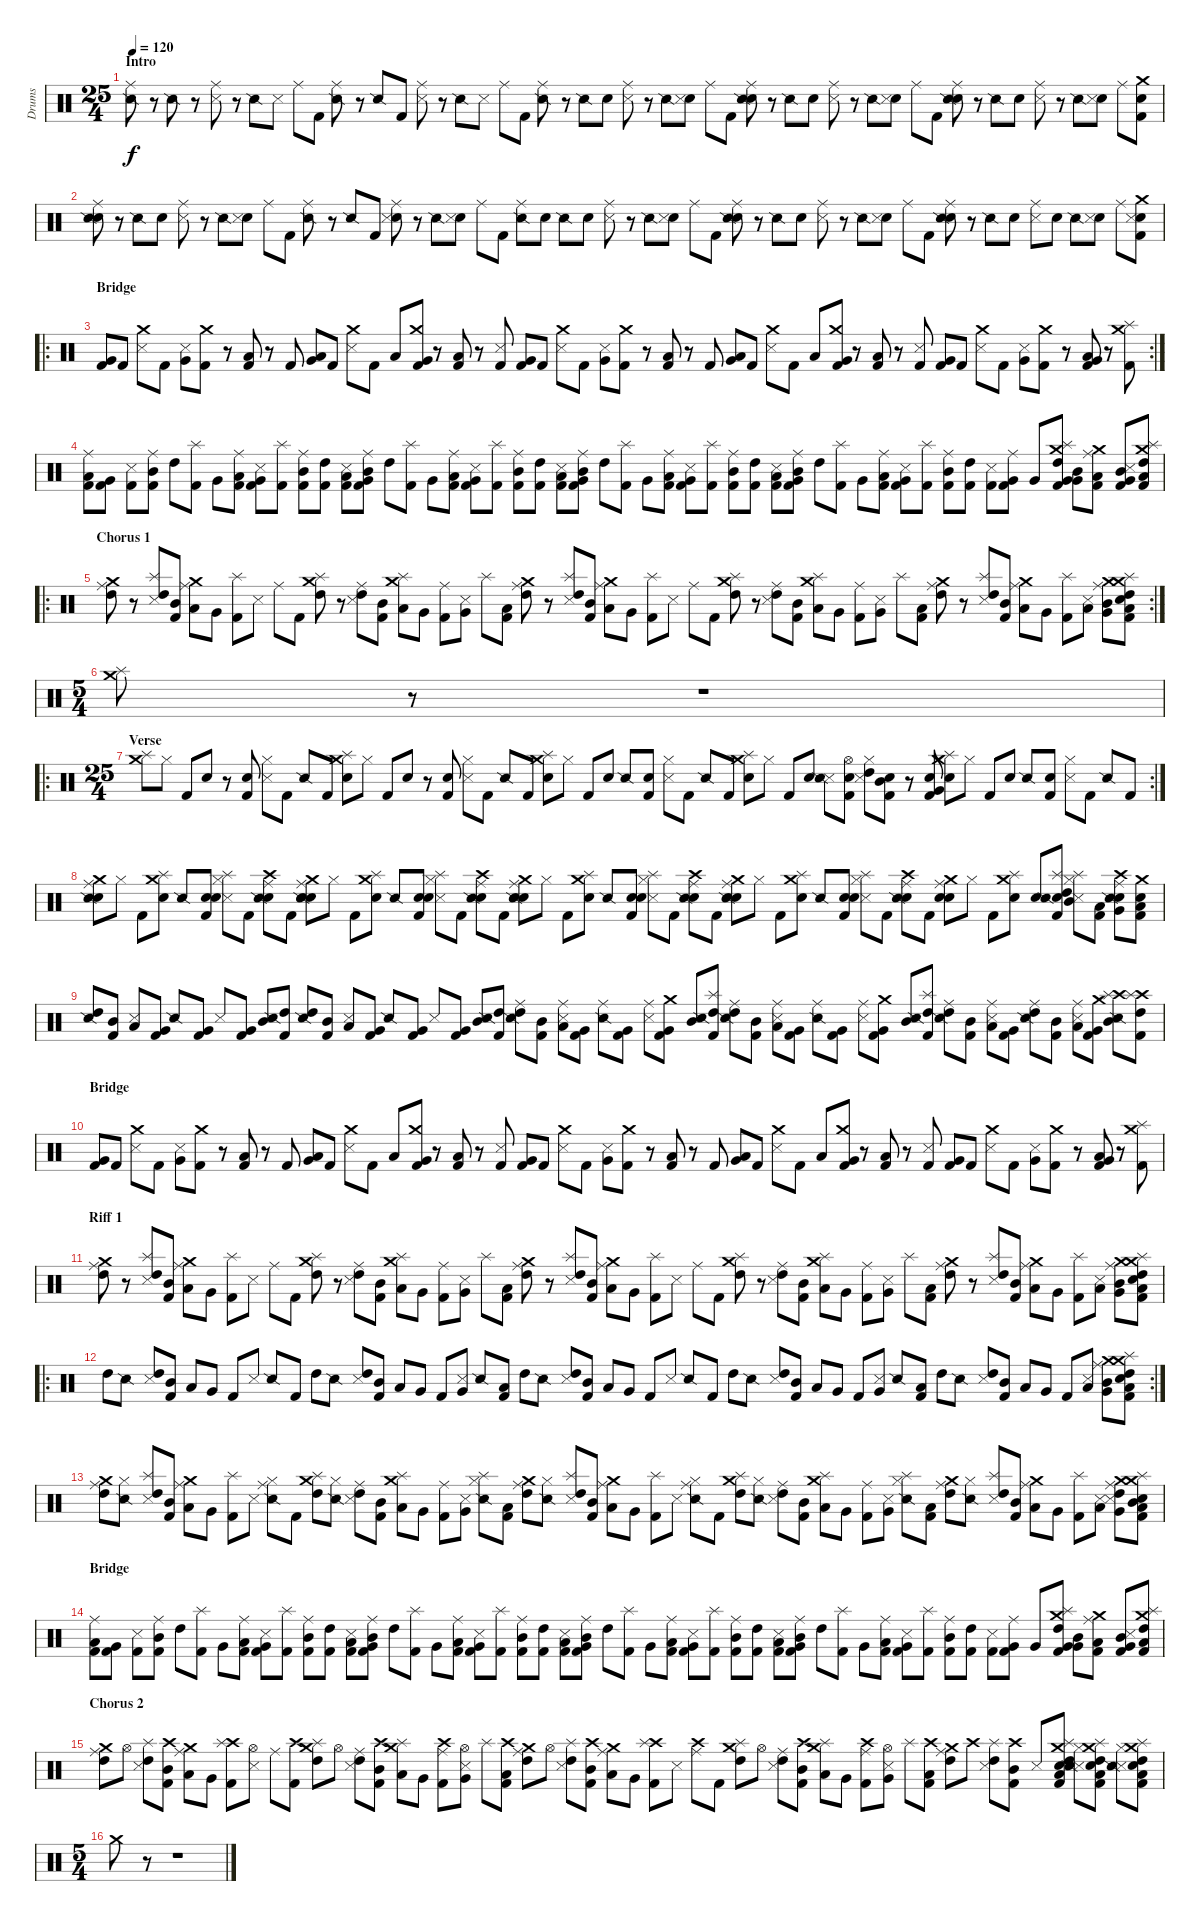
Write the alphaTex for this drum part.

\track ("Drums" "Drums") {instrument percussion}
\staff {score}
\articulation defaults
\ts (25 4)
\section ("" "Intro")
\tempo 120
\clef neutral
\ks c
("Ride (middle)" "Snare (side stick) 2").8{dy f} r.8 "Snare (side stick) 2".8 r.8 ("Ride (middle)" "Snare (side stick) 3").8 r.8 "Snare (side stick) 2".8 "Snare (side stick) 3".8 "Ride (middle)".8 "Kick (hit) 2".8 ("Ride (middle)" "Snare (side stick) 2").8 r.8 "Snare (side stick) 2".8 "Kick (hit) 2".8 ("Ride (middle)" "Snare (side stick) 3").8 r.8 "Snare (side stick) 2".8 "Snare (side stick) 3".8 "Ride (middle)".8 "Kick (hit) 2".8 ("Ride (middle)" "Snare (side stick) 2").8 r.8 "Snare (side stick) 2".8 "Electric Snare (hit)".8 ("Ride (middle)" "Snare (side stick) 3").8 r.8 "Snare (side stick) 2".8 ("Electric Snare (hit)" "Snare (side stick) 3").8 "Ride (middle)".8 "Kick (hit) 2".8 ("Ride (middle)" "Electric Snare (hit)" "Snare (side stick) 2").8 r.8 "Snare (side stick) 2".8 "Electric Snare (hit)".8 ("Ride (middle)" "Snare (side stick) 3").8 r.8 "Snare (side stick) 2".8 ("Electric Snare (hit)" "Snare (side stick) 3").8 "Ride (middle)".8 "Kick (hit) 2".8 ("Ride (middle)" "Electric Snare (hit)" "Snare (side stick) 2").8 r.8 "Snare (side stick) 2".8 "Electric Snare (hit)".8 ("Ride (middle)" "Snare (side stick) 3").8 r.8 "Snare (side stick) 2".8 ("Electric Snare (hit)" "Snare (side stick) 3").8 "Ride (middle)".8 ("Crash medium (hit)" "Electric Snare (hit)" "Kick (hit) 2").8 |
("Ride (middle)" "Electric Snare (hit)" "Snare (side stick) 2").8 r.8 "Snare (side stick) 2".8 "Electric Snare (hit)".8 ("Ride (middle)" "Snare (side stick) 3").8 r.8 "Snare (side stick) 2".8 ("Electric Snare (hit)" "Snare (side stick) 3").8 "Ride (middle)".8 "Kick (hit) 2".8 ("Ride (middle)" "Snare (side stick) 2").8 r.8 "Snare (side stick) 2".8 "Kick (hit) 2".8 ("Ride (middle)" "Electric Snare (hit)" "Snare (side stick) 3").8 r.8 "Snare (side stick) 2".8 ("Electric Snare (hit)" "Snare (side stick) 3").8 "Ride (middle)".8 "Kick (hit) 2".8 ("Ride (middle)" "Snare (side stick) 2").8 "Electric Snare (hit)".8 "Snare (side stick) 2".8 "Electric Snare (hit)".8 ("Ride (middle)" "Snare (side stick) 3").8 r.8 "Snare (side stick) 2".8 ("Electric Snare (hit)" "Snare (side stick) 3").8 "Ride (middle)".8 "Kick (hit) 2".8 ("Ride (middle)" "Electric Snare (hit)" "Snare (side stick) 2").8 r.8 "Snare (side stick) 2".8 "Electric Snare (hit)".8 ("Ride (middle)" "Snare (side stick) 3").8 r.8 "Snare (side stick) 2".8 ("Electric Snare (hit)" "Snare (side stick) 3").8 "Ride (middle)".8 "Kick (hit) 2".8 ("Ride (middle)" "Electric Snare (hit)" "Snare (side stick) 2").8 r.8 "Snare (side stick) 2".8 "Electric Snare (hit)".8 ("Ride (middle)" "Snare (side stick) 3").8 "Electric Snare (hit)".8 "Snare (side stick) 2".8 ("Electric Snare (hit)" "Snare (side stick) 3").8 "Ride (middle)".8 ("Crash medium (hit)" "Electric Snare (hit)" "Snare (side stick) 3" "Kick (hit) 2").8 |
\ro
\rc 2
\section ("" "Bridge")
("Very Low Tom (hit)" "Kick (hit) 2").8 "Kick (hit) 2".8 ("Crash medium (hit)" "Snare (side stick) 3").8 "Kick (hit) 2".8 ("Very Low Tom (hit)" "Snare (side stick) 3").8 ("Crash medium (hit)" "Kick (hit) 2").8 r.8 ("Low Tom (hit)" "Kick (hit) 2").8 r.8 "Kick (hit) 2".8 ("Low Tom (hit)" "Very Low Tom (hit)").8 "Kick (hit) 2".8 ("Crash medium (hit)" "Snare (side stick) 3").8 "Kick (hit) 2".8 "Low Tom (hit)".8 ("Crash medium (hit)" "Very Low Tom (hit)" "Kick (hit) 2").8 r.8 ("Low Tom (hit)" "Kick (hit) 2").8 r.8 ("Snare (side stick) 3" "Kick (hit) 2").8 ("Very Low Tom (hit)" "Kick (hit) 2").8 "Kick (hit) 2".8 ("Crash medium (hit)" "Snare (side stick) 3").8 "Kick (hit) 2".8 ("Very Low Tom (hit)" "Snare (side stick) 3").8 ("Crash medium (hit)" "Kick (hit) 2").8 r.8 ("Low Tom (hit)" "Kick (hit) 2").8 r.8 "Kick (hit) 2".8 ("Low Tom (hit)" "Very Low Tom (hit)").8 "Kick (hit) 2".8 ("Crash medium (hit)" "Snare (side stick) 3").8 "Kick (hit) 2".8 "Low Tom (hit)".8 ("Crash medium (hit)" "Very Low Tom (hit)" "Kick (hit) 2").8 r.8 ("Low Tom (hit)" "Kick (hit) 2").8 r.8 ("Snare (side stick) 3" "Kick (hit) 2").8 ("Very Low Tom (hit)" "Kick (hit) 2").8 "Kick (hit) 2".8 ("Crash medium (hit)" "Snare (side stick) 3").8 "Kick (hit) 2".8 ("Very Low Tom (hit)" "Snare (side stick) 3").8 ("Crash medium (hit)" "Kick (hit) 2").8 r.8 ("Low Tom (hit)" "Very Low Tom (hit)" "Kick (hit) 2").8 r.8 ("Crash medium (hit)" "Splash (hit)" "Kick (hit) 2").8 |
("Ride (middle)" "Low Tom (hit)" "Kick (hit) 2").8 ("Very Low Tom (hit)" "Kick (hit) 2").8 ("Snare (side stick) 3" "Kick (hit) 2").8 ("Ride (middle)" "Mid Tom (hit)" "Kick (hit) 2").8 "High Tom (hit)".8 ("Splash (hit)" "Kick (hit) 2").8 "Very Low Tom (hit)".8 ("Ride (middle)" "Low Tom (hit)" "Kick (hit) 2").8 ("Very Low Tom (hit)" "Snare (side stick) 3" "Kick (hit) 2").8 ("Splash (hit)" "Kick (hit) 2").8 ("Ride (middle)" "Mid Tom (hit)" "Kick (hit) 2").8 ("High Tom (hit)" "Kick (hit) 2").8 ("Low Tom (hit)" "Snare (side stick) 3" "Kick (hit) 2").8 ("Ride (middle)" "Mid Tom (hit)" "Very Low Tom (hit)" "Kick (hit) 2").8 "High Tom (hit)".8 ("Splash (hit)" "Kick (hit) 2").8 "Very Low Tom (hit)".8 ("Ride (middle)" "Low Tom (hit)" "Kick (hit) 2").8 ("Very Low Tom (hit)" "Snare (side stick) 3" "Kick (hit) 2").8 ("Splash (hit)" "Kick (hit) 2").8 ("Ride (middle)" "Mid Tom (hit)" "Kick (hit) 2").8 ("High Tom (hit)" "Kick (hit) 2").8 ("Low Tom (hit)" "Snare (side stick) 3" "Kick (hit) 2").8 ("Ride (middle)" "Mid Tom (hit)" "Very Low Tom (hit)" "Kick (hit) 2").8 "High Tom (hit)".8 ("Splash (hit)" "Kick (hit) 2").8 "Very Low Tom (hit)".8 ("Ride (middle)" "Low Tom (hit)" "Kick (hit) 2").8 ("Very Low Tom (hit)" "Snare (side stick) 3" "Kick (hit) 2").8 ("Splash (hit)" "Kick (hit) 2").8 ("Ride (middle)" "Mid Tom (hit)" "Kick (hit) 2").8 ("High Tom (hit)" "Kick (hit) 2").8 ("Low Tom (hit)" "Snare (side stick) 3" "Kick (hit) 2").8 ("Ride (middle)" "Mid Tom (hit)" "Very Low Tom (hit)" "Kick (hit) 2").8 "High Tom (hit)".8 ("Splash (hit)" "Kick (hit) 2").8 "Very Low Tom (hit)".8 ("Ride (middle)" "Low Tom (hit)" "Kick (hit) 2").8 ("Very Low Tom (hit)" "Snare (side stick) 3" "Kick (hit) 2").8 ("Splash (hit)" "Kick (hit) 2").8 ("Ride (middle)" "Mid Tom (hit)" "Kick (hit) 2").8 ("High Tom (hit)" "Kick (hit) 2").8 ("Snare (side stick) 3" "Kick (hit) 2").8 ("Ride (middle)" "Very Low Tom (hit)" "Kick (hit) 2").8 "Very Low Tom (hit)".8 ("Crash medium (hit)" "Splash (hit)" "High Tom (hit)" "Very Low Tom (hit)" "Kick (hit) 2").8 ("Mid Tom (hit)" "Very Low Tom (hit)").8 ("Crash medium (hit)" "Ride (middle)" "Low Tom (hit)" "Kick (hit) 2").8 ("Mid Tom (hit)" "Very Low Tom (hit)" "Snare (side stick) 3" "Kick (hit) 2").8 ("Crash medium (hit)" "Splash (hit)" "High Tom (hit)" "Low Tom (hit)" "Kick (hit) 2").8 |
\ro
\rc 2
\section ("" "Chorus 1")
("Crash medium (hit)" "Ride (middle)" "High Tom (hit)").8 r.8 ("Splash (hit)" "High Tom (hit)" "Snare (side stick) 3").8 ("Mid Tom (hit)" "Kick (hit) 2").8 ("Crash medium (hit)" "Ride (middle)" "Low Tom (hit)").8 "Very Low Tom (hit)".8 ("Splash (hit)" "Kick (hit) 2").8 "Snare (side stick) 3".8 "Ride (middle)".8 "Kick (hit) 2".8 ("Crash medium (hit)" "Splash (hit)" "High Tom (hit)").8 r.8 ("Ride (middle)" "High Tom (hit)" "Snare (side stick) 3").8 ("Mid Tom (hit)" "Kick (hit) 2").8 ("Crash medium (hit)" "Splash (hit)" "Low Tom (hit)").8 "Very Low Tom (hit)".8 ("Ride (middle)" "Kick (hit) 2").8 ("Very Low Tom (hit)" "Snare (side stick) 3").8 "Splash (hit)".8 ("Low Tom (hit)" "Kick (hit) 2").8 ("Crash medium (hit)" "Ride (middle)" "High Tom (hit)").8 r.8 ("Splash (hit)" "High Tom (hit)" "Snare (side stick) 3").8 ("Mid Tom (hit)" "Kick (hit) 2").8 ("Crash medium (hit)" "Ride (middle)" "Low Tom (hit)").8 "Very Low Tom (hit)".8 ("Splash (hit)" "Kick (hit) 2").8 "Snare (side stick) 3".8 "Ride (middle)".8 "Kick (hit) 2".8 ("Crash medium (hit)" "Splash (hit)" "High Tom (hit)").8 r.8 ("Ride (middle)" "High Tom (hit)" "Snare (side stick) 3").8 ("Mid Tom (hit)" "Kick (hit) 2").8 ("Crash medium (hit)" "Splash (hit)" "Low Tom (hit)").8 "Very Low Tom (hit)".8 ("Ride (middle)" "Kick (hit) 2").8 ("Very Low Tom (hit)" "Snare (side stick) 3").8 "Splash (hit)".8 ("Low Tom (hit)" "Kick (hit) 2").8 ("Crash medium (hit)" "Ride (middle)" "High Tom (hit)").8 r.8 ("Splash (hit)" "High Tom (hit)" "Snare (side stick) 3").8 ("Mid Tom (hit)" "Kick (hit) 2").8 ("Crash medium (hit)" "Ride (middle)" "Low Tom (hit)").8 "Very Low Tom (hit)".8 ("Splash (hit)" "Kick (hit) 2").8 ("Low Tom (hit)" "Snare (side stick) 3").8 ("Crash medium (hit)" "Ride (middle)" "Mid Tom (hit)" "Very Low Tom (hit)").8 ("Crash medium (hit)" "Splash (hit)" "High Tom (hit)" "Low Tom (hit)" "Electric Snare (hit)" "Kick (hit) 2").8 |
\ts (5 4)
("Crash medium (hit)" "Splash (hit)").8 r.8 r.1 |
\ro
\rc 2
\ts (25 4)
\section ("" "Verse")
("Crash medium (hit)" "Splash (hit)").8 "Hi-Hat (closed)".8 "Kick (hit) 2".8 "Snare (hit) 2".8 r.8 ("Snare (hit) 2" "Kick (hit) 2").8 ("Hi-Hat (closed)" "Snare (side stick) 3").8 "Kick (hit) 2".8 "Snare (side stick) 2".8 "Kick (hit) 2".8 ("Crash medium (hit)" "Splash (hit)" "Snare (hit) 2").8 "Hi-Hat (closed)".8 "Kick (hit) 2".8 "Snare (hit) 2".8 r.8 ("Snare (hit) 2" "Kick (hit) 2").8 ("Hi-Hat (closed)" "Snare (side stick) 3").8 "Kick (hit) 2".8 "Snare (side stick) 2".8 "Kick (hit) 2".8 ("Crash medium (hit)" "Splash (hit)" "Snare (hit) 2").8 "Hi-Hat (closed)".8 "Kick (hit) 2".8 "Snare (hit) 2".8 "Snare (side stick) 2".8 ("Snare (hit) 2" "Kick (hit) 2").8 ("Hi-Hat (closed)" "Snare (side stick) 3").8 "Kick (hit) 2".8 "Snare (side stick) 2".8 "Kick (hit) 2".8 ("Crash medium (hit)" "Splash (hit)" "Snare (hit) 2").8 "Hi-Hat (closed)".8 "Kick (hit) 2".8 "Snare (hit) 2".8 ("Snare (side stick) 3" "Snare (side stick) 2").8 ("Hi-Hat (open)" "Snare (hit) 2" "Kick (hit) 2").8 ("High Tom (hit)" "Hi-Hat (closed)" "Snare (side stick) 3").8 ("Mid Tom (hit)" "Electric Snare (hit)" "Kick (hit) 2").8 r.8 ("Very Low Tom (hit)" "Electric Snare (hit)" "Kick (hit) 2").8 ("Crash medium (hit)" "Splash (hit)" "Snare (hit) 2").8 "Hi-Hat (closed)".8 "Kick (hit) 2".8 "Snare (hit) 2".8 "Snare (side stick) 2".8 ("Snare (hit) 2" "Kick (hit) 2").8 ("Hi-Hat (closed)" "Snare (side stick) 3").8 "Kick (hit) 2".8 "Snare (side stick) 2".8 "Kick (hit) 2".8 |
("Crash medium (hit)" "Ride (middle)" "Electric Snare (hit)" "Snare (side stick) 2").8 "Hi-Hat (closed)".8 "Kick (hit) 2".8 ("Crash medium (hit)" "Splash (hit)" "Snare (hit) 2").8 "Snare (side stick) 2".8 ("Electric Snare (hit)" "Snare (hit) 2" "Kick (hit) 2").8 ("Splash (hit)" "Hi-Hat (closed)" "Snare (side stick) 3").8 "Kick (hit) 2".8 ("Crash high (hit)" "Ride (middle)" "Electric Snare (hit)" "Snare (side stick) 2").8 "Kick (hit) 2".8 ("Crash medium (hit)" "Ride (middle)" "Electric Snare (hit)" "Snare (hit) 2" "Snare (side stick) 2").8 "Hi-Hat (closed)".8 "Kick (hit) 2".8 ("Crash medium (hit)" "Splash (hit)" "Snare (hit) 2").8 "Snare (side stick) 2".8 ("Electric Snare (hit)" "Snare (hit) 2" "Kick (hit) 2").8 ("Splash (hit)" "Hi-Hat (closed)" "Snare (side stick) 3").8 "Kick (hit) 2".8 ("Crash high (hit)" "Ride (middle)" "Electric Snare (hit)" "Snare (side stick) 2").8 "Kick (hit) 2".8 ("Crash medium (hit)" "Ride (middle)" "Electric Snare (hit)" "Snare (hit) 2" "Snare (side stick) 2").8 "Hi-Hat (closed)".8 "Kick (hit) 2".8 ("Crash medium (hit)" "Splash (hit)" "Snare (hit) 2").8 "Snare (side stick) 2".8 ("Electric Snare (hit)" "Snare (hit) 2" "Kick (hit) 2").8 ("Splash (hit)" "Hi-Hat (closed)" "Snare (side stick) 3").8 "Kick (hit) 2".8 ("Crash high (hit)" "Ride (middle)" "Electric Snare (hit)" "Snare (side stick) 2").8 "Kick (hit) 2".8 ("Crash medium (hit)" "Ride (middle)" "Electric Snare (hit)" "Snare (hit) 2" "Snare (side stick) 2").8 "Hi-Hat (closed)".8 "Kick (hit) 2".8 ("Crash medium (hit)" "Splash (hit)" "Snare (hit) 2").8 "Snare (side stick) 2".8 ("Electric Snare (hit)" "Snare (hit) 2" "Kick (hit) 2").8 ("Splash (hit)" "Hi-Hat (closed)" "Snare (side stick) 3").8 "Kick (hit) 2".8 ("Crash high (hit)" "Ride (middle)" "Electric Snare (hit)" "Snare (side stick) 2").8 "Kick (hit) 2".8 ("Crash medium (hit)" "Ride (middle)" "Electric Snare (hit)" "Snare (hit) 2").8 "Hi-Hat (closed)".8 "Kick (hit) 2".8 ("Crash medium (hit)" "Splash (hit)" "Snare (hit) 2").8 ("Electric Snare (hit)" "Snare (side stick) 2").8 ("Splash (hit)" "High Tom (hit)" "Snare (hit) 2" "Kick (hit) 2").8 ("Splash (hit)" "Mid Tom (hit)" "Hi-Hat (closed)" "Snare (side stick) 3").8 ("Low Tom (hit)" "Kick (hit) 2").8 ("Crash high (hit)" "Ride (middle)" "Electric Snare (hit)" "Very Low Tom (hit)" "Snare (side stick) 2").8 ("Crash medium (hit)" "Electric Snare (hit)" "Low Floor Tom (hit)" "Kick (hit) 2").8 |
("High Tom (hit)" "Snare (side stick) 2").8 ("Mid Tom (hit)" "Kick (hit) 2").8 ("Low Tom (hit)" "Snare (side stick) 3").8 ("Very Low Tom (hit)" "Kick (hit) 2").8 "Snare (side stick) 2".8 ("Very Low Tom (hit)" "Kick (hit) 2").8 "Snare (side stick) 3".8 ("Very Low Tom (hit)" "Kick (hit) 2").8 ("Mid Tom (hit)" "Snare (side stick) 2").8 ("High Tom (hit)" "Kick (hit) 2").8 ("High Tom (hit)" "Snare (side stick) 2").8 ("Mid Tom (hit)" "Kick (hit) 2").8 ("Low Tom (hit)" "Snare (side stick) 3").8 ("Very Low Tom (hit)" "Kick (hit) 2").8 "Snare (side stick) 2".8 ("Very Low Tom (hit)" "Kick (hit) 2").8 "Snare (side stick) 3".8 ("Very Low Tom (hit)" "Kick (hit) 2").8 ("Mid Tom (hit)" "Snare (side stick) 2").8 ("High Tom (hit)" "Kick (hit) 2").8 ("Ride (middle)" "High Tom (hit)" "Snare (side stick) 2").8 ("Mid Tom (hit)" "Kick (hit) 2").8 ("Ride (middle)" "Low Tom (hit)" "Snare (side stick) 3").8 ("Very Low Tom (hit)" "Kick (hit) 2").8 ("Ride (middle)" "Snare (side stick) 2").8 ("Very Low Tom (hit)" "Kick (hit) 2").8 ("Ride (middle)" "Snare (side stick) 3").8 ("Crash medium (hit)" "Very Low Tom (hit)" "Kick (hit) 2").8 ("Mid Tom (hit)" "Snare (side stick) 2").8 ("Splash (hit)" "High Tom (hit)" "Kick (hit) 2").8 ("Ride (middle)" "High Tom (hit)" "Snare (side stick) 2").8 ("Mid Tom (hit)" "Kick (hit) 2").8 ("Ride (middle)" "Low Tom (hit)" "Snare (side stick) 3").8 ("Very Low Tom (hit)" "Kick (hit) 2").8 ("Ride (middle)" "Snare (side stick) 2").8 ("Very Low Tom (hit)" "Kick (hit) 2").8 ("Ride (middle)" "Snare (side stick) 3").8 ("Crash medium (hit)" "Very Low Tom (hit)" "Kick (hit) 2").8 ("Mid Tom (hit)" "Snare (side stick) 2").8 ("Splash (hit)" "High Tom (hit)" "Kick (hit) 2").8 ("Ride (middle)" "High Tom (hit)" "Snare (side stick) 2").8 ("Mid Tom (hit)" "Kick (hit) 2").8 ("Ride (middle)" "Low Tom (hit)" "Snare (side stick) 3").8 ("Very Low Tom (hit)" "Kick (hit) 2").8 ("Ride (middle)" "High Tom (hit)" "Snare (side stick) 2").8 ("Mid Tom (hit)" "Kick (hit) 2").8 ("Ride (middle)" "Low Tom (hit)" "Snare (side stick) 3").8 ("Crash medium (hit)" "Very Low Tom (hit)" "Kick (hit) 2").8 ("Crash high (hit)" "Splash (hit)" "Mid Tom (hit)" "Snare (side stick) 2").8 ("Crash high (hit)" "Splash (hit)" "High Tom (hit)" "Kick (hit) 2").8 |
\section ("" "Bridge")
("Very Low Tom (hit)" "Kick (hit) 2").8 "Kick (hit) 2".8 ("Crash medium (hit)" "Snare (side stick) 3").8 "Kick (hit) 2".8 ("Very Low Tom (hit)" "Snare (side stick) 3").8 ("Crash medium (hit)" "Kick (hit) 2").8 r.8 ("Low Tom (hit)" "Kick (hit) 2").8 r.8 "Kick (hit) 2".8 ("Low Tom (hit)" "Very Low Tom (hit)").8 "Kick (hit) 2".8 ("Crash medium (hit)" "Snare (side stick) 3").8 "Kick (hit) 2".8 "Low Tom (hit)".8 ("Crash medium (hit)" "Very Low Tom (hit)" "Kick (hit) 2").8 r.8 ("Low Tom (hit)" "Kick (hit) 2").8 r.8 ("Snare (side stick) 3" "Kick (hit) 2").8 ("Very Low Tom (hit)" "Kick (hit) 2").8 "Kick (hit) 2".8 ("Crash medium (hit)" "Snare (side stick) 3").8 "Kick (hit) 2".8 ("Very Low Tom (hit)" "Snare (side stick) 3").8 ("Crash medium (hit)" "Kick (hit) 2").8 r.8 ("Low Tom (hit)" "Kick (hit) 2").8 r.8 "Kick (hit) 2".8 ("Low Tom (hit)" "Very Low Tom (hit)").8 "Kick (hit) 2".8 ("Crash medium (hit)" "Snare (side stick) 3").8 "Kick (hit) 2".8 "Low Tom (hit)".8 ("Crash medium (hit)" "Very Low Tom (hit)" "Kick (hit) 2").8 r.8 ("Low Tom (hit)" "Kick (hit) 2").8 r.8 ("Snare (side stick) 3" "Kick (hit) 2").8 ("Very Low Tom (hit)" "Kick (hit) 2").8 "Kick (hit) 2".8 ("Crash medium (hit)" "Snare (side stick) 3").8 "Kick (hit) 2".8 ("Very Low Tom (hit)" "Snare (side stick) 3").8 ("Crash medium (hit)" "Kick (hit) 2").8 r.8 ("Low Tom (hit)" "Very Low Tom (hit)" "Kick (hit) 2").8 r.8 ("Crash medium (hit)" "Splash (hit)" "Kick (hit) 2").8 |
\section ("" "Riff 1")
("Crash medium (hit)" "Ride (middle)" "High Tom (hit)").8 r.8 ("Splash (hit)" "High Tom (hit)" "Snare (side stick) 3").8 ("Mid Tom (hit)" "Kick (hit) 2").8 ("Crash medium (hit)" "Ride (middle)" "Low Tom (hit)").8 "Very Low Tom (hit)".8 ("Splash (hit)" "Kick (hit) 2").8 "Snare (side stick) 3".8 "Ride (middle)".8 "Kick (hit) 2".8 ("Crash medium (hit)" "Splash (hit)" "High Tom (hit)").8 r.8 ("Ride (middle)" "High Tom (hit)" "Snare (side stick) 3").8 ("Mid Tom (hit)" "Kick (hit) 2").8 ("Crash medium (hit)" "Splash (hit)" "Low Tom (hit)").8 "Very Low Tom (hit)".8 ("Ride (middle)" "Kick (hit) 2").8 ("Very Low Tom (hit)" "Snare (side stick) 3").8 "Splash (hit)".8 ("Low Tom (hit)" "Kick (hit) 2").8 ("Crash medium (hit)" "Ride (middle)" "High Tom (hit)").8 r.8 ("Splash (hit)" "High Tom (hit)" "Snare (side stick) 3").8 ("Mid Tom (hit)" "Kick (hit) 2").8 ("Crash medium (hit)" "Ride (middle)" "Low Tom (hit)").8 "Very Low Tom (hit)".8 ("Splash (hit)" "Kick (hit) 2").8 "Snare (side stick) 3".8 "Ride (middle)".8 "Kick (hit) 2".8 ("Crash medium (hit)" "Splash (hit)" "High Tom (hit)").8 r.8 ("Ride (middle)" "High Tom (hit)" "Snare (side stick) 3").8 ("Mid Tom (hit)" "Kick (hit) 2").8 ("Crash medium (hit)" "Splash (hit)" "Low Tom (hit)").8 "Very Low Tom (hit)".8 ("Ride (middle)" "Kick (hit) 2").8 ("Very Low Tom (hit)" "Snare (side stick) 3").8 "Splash (hit)".8 ("Low Tom (hit)" "Kick (hit) 2").8 ("Crash medium (hit)" "Ride (middle)" "High Tom (hit)").8 r.8 ("Splash (hit)" "High Tom (hit)" "Snare (side stick) 3").8 ("Mid Tom (hit)" "Kick (hit) 2").8 ("Crash medium (hit)" "Ride (middle)" "Low Tom (hit)").8 "Very Low Tom (hit)".8 ("Splash (hit)" "Kick (hit) 2").8 ("Low Tom (hit)" "Snare (side stick) 3").8 ("Crash medium (hit)" "Ride (middle)" "Mid Tom (hit)" "Very Low Tom (hit)").8 ("Crash medium (hit)" "Splash (hit)" "High Tom (hit)" "Low Tom (hit)" "Electric Snare (hit)" "Kick (hit) 2").8 |
\ro
\rc 2 "High Tom (hit)".8 "Snare (side stick) 2".8
("High Tom (hit)" "Snare (side stick) 3").8 ("Mid Tom (hit)" "Kick (hit) 2").8 "Low Tom (hit)".8 "Very Low Tom (hit)".8 "Kick (hit) 2".8 "Snare (side stick) 3".8 "Snare (side stick) 2".8 "Kick (hit) 2".8 "High Tom (hit)".8 "Snare (side stick) 2".8 ("High Tom (hit)" "Snare (side stick) 3").8 ("Mid Tom (hit)" "Kick (hit) 2").8 "Low Tom (hit)".8 "Very Low Tom (hit)".8 "Kick (hit) 2".8 ("Very Low Tom (hit)" "Snare (side stick) 3").8 "Snare (side stick) 2".8 ("Low Tom (hit)" "Kick (hit) 2").8 "High Tom (hit)".8 "Snare (side stick) 2".8 ("High Tom (hit)" "Snare (side stick) 3").8 ("Mid Tom (hit)" "Kick (hit) 2").8 "Low Tom (hit)".8 "Very Low Tom (hit)".8 "Kick (hit) 2".8 "Snare (side stick) 3".8 "Snare (side stick) 2".8 "Kick (hit) 2".8 "High Tom (hit)".8 "Snare (side stick) 2".8 ("High Tom (hit)" "Snare (side stick) 3").8 ("Mid Tom (hit)" "Kick (hit) 2").8 "Low Tom (hit)".8 "Very Low Tom (hit)".8 "Kick (hit) 2".8 ("Very Low Tom (hit)" "Snare (side stick) 3").8 "Snare (side stick) 2".8 ("Low Tom (hit)" "Kick (hit) 2").8 "High Tom (hit)".8 "Snare (side stick) 2".8 ("High Tom (hit)" "Snare (side stick) 3").8 ("Mid Tom (hit)" "Kick (hit) 2").8 "Low Tom (hit)".8 "Very Low Tom (hit)".8 "Kick (hit) 2".8 ("Low Tom (hit)" "Snare (side stick) 3").8 ("Crash medium (hit)" "Ride (middle)" "Mid Tom (hit)" "Very Low Tom (hit)").8 ("Crash medium (hit)" "Splash (hit)" "High Tom (hit)" "Low Tom (hit)" "Electric Snare (hit)" "Kick (hit) 2").8 |
("Crash medium (hit)" "Ride (middle)" "High Tom (hit)").8 ("Hi-Hat (closed)" "Snare (side stick) 2").8 ("Splash (hit)" "High Tom (hit)" "Snare (side stick) 3").8 ("Mid Tom (hit)" "Kick (hit) 2").8 ("Crash medium (hit)" "Ride (middle)" "Low Tom (hit)").8 "Very Low Tom (hit)".8 ("Splash (hit)" "Kick (hit) 2").8 "Snare (side stick) 3".8 ("Ride (middle)" "Hi-Hat (closed)" "Snare (side stick) 2").8 "Kick (hit) 2".8 ("Crash medium (hit)" "Splash (hit)" "High Tom (hit)").8 ("Hi-Hat (closed)" "Snare (side stick) 2").8 ("Ride (middle)" "High Tom (hit)" "Snare (side stick) 3").8 ("Mid Tom (hit)" "Kick (hit) 2").8 ("Crash medium (hit)" "Splash (hit)" "Low Tom (hit)").8 "Very Low Tom (hit)".8 ("Ride (middle)" "Kick (hit) 2").8 ("Very Low Tom (hit)" "Snare (side stick) 3").8 ("Splash (hit)" "Hi-Hat (closed)" "Snare (side stick) 2").8 ("Low Tom (hit)" "Kick (hit) 2").8 ("Crash medium (hit)" "Ride (middle)" "High Tom (hit)").8 ("Hi-Hat (closed)" "Snare (side stick) 2").8 ("Splash (hit)" "High Tom (hit)" "Snare (side stick) 3").8 ("Mid Tom (hit)" "Kick (hit) 2").8 ("Crash medium (hit)" "Ride (middle)" "Low Tom (hit)").8 "Very Low Tom (hit)".8 ("Splash (hit)" "Kick (hit) 2").8 "Snare (side stick) 3".8 ("Ride (middle)" "Hi-Hat (closed)" "Snare (side stick) 2").8 "Kick (hit) 2".8 ("Crash medium (hit)" "Splash (hit)" "High Tom (hit)").8 ("Hi-Hat (closed)" "Snare (side stick) 2").8 ("Ride (middle)" "High Tom (hit)" "Snare (side stick) 3").8 ("Mid Tom (hit)" "Kick (hit) 2").8 ("Crash medium (hit)" "Splash (hit)" "Low Tom (hit)").8 "Very Low Tom (hit)".8 ("Ride (middle)" "Kick (hit) 2").8 ("Very Low Tom (hit)" "Snare (side stick) 3").8 ("Splash (hit)" "Hi-Hat (closed)" "Snare (side stick) 2").8 ("Low Tom (hit)" "Kick (hit) 2").8 ("Crash medium (hit)" "Ride (middle)" "High Tom (hit)").8 ("Hi-Hat (closed)" "Snare (side stick) 2").8 ("Splash (hit)" "High Tom (hit)" "Snare (side stick) 3").8 ("Mid Tom (hit)" "Kick (hit) 2").8 ("Crash medium (hit)" "Ride (middle)" "Low Tom (hit)").8 "Very Low Tom (hit)".8 ("Splash (hit)" "Kick (hit) 2").8 ("Low Tom (hit)" "Snare (side stick) 3").8 ("Crash medium (hit)" "Ride (middle)" "High Tom (hit)" "Very Low Tom (hit)" "Snare (side stick) 3").8 ("Crash medium (hit)" "Splash (hit)" "Mid Tom (hit)" "Low Tom (hit)" "Electric Snare (hit)" "Kick (hit) 2").8 |
\section ("" "Bridge")
("Ride (middle)" "Low Tom (hit)" "Kick (hit) 2").8 ("Very Low Tom (hit)" "Kick (hit) 2").8 ("Snare (side stick) 3" "Kick (hit) 2").8 ("Ride (middle)" "Mid Tom (hit)" "Kick (hit) 2").8 "High Tom (hit)".8 ("Splash (hit)" "Kick (hit) 2").8 "Very Low Tom (hit)".8 ("Ride (middle)" "Low Tom (hit)" "Kick (hit) 2").8 ("Very Low Tom (hit)" "Snare (side stick) 3" "Kick (hit) 2").8 ("Splash (hit)" "Kick (hit) 2").8 ("Ride (middle)" "Mid Tom (hit)" "Kick (hit) 2").8 ("High Tom (hit)" "Kick (hit) 2").8 ("Low Tom (hit)" "Snare (side stick) 3" "Kick (hit) 2").8 ("Ride (middle)" "Mid Tom (hit)" "Very Low Tom (hit)" "Kick (hit) 2").8 "High Tom (hit)".8 ("Splash (hit)" "Kick (hit) 2").8 "Very Low Tom (hit)".8 ("Ride (middle)" "Low Tom (hit)" "Kick (hit) 2").8 ("Very Low Tom (hit)" "Snare (side stick) 3" "Kick (hit) 2").8 ("Splash (hit)" "Kick (hit) 2").8 ("Ride (middle)" "Mid Tom (hit)" "Kick (hit) 2").8 ("High Tom (hit)" "Kick (hit) 2").8 ("Low Tom (hit)" "Snare (side stick) 3" "Kick (hit) 2").8 ("Ride (middle)" "Mid Tom (hit)" "Very Low Tom (hit)" "Kick (hit) 2").8 "High Tom (hit)".8 ("Splash (hit)" "Kick (hit) 2").8 "Very Low Tom (hit)".8 ("Ride (middle)" "Low Tom (hit)" "Kick (hit) 2").8 ("Very Low Tom (hit)" "Snare (side stick) 3" "Kick (hit) 2").8 ("Splash (hit)" "Kick (hit) 2").8 ("Ride (middle)" "Mid Tom (hit)" "Kick (hit) 2").8 ("High Tom (hit)" "Kick (hit) 2").8 ("Low Tom (hit)" "Snare (side stick) 3" "Kick (hit) 2").8 ("Ride (middle)" "Mid Tom (hit)" "Very Low Tom (hit)" "Kick (hit) 2").8 "High Tom (hit)".8 ("Splash (hit)" "Kick (hit) 2").8 "Very Low Tom (hit)".8 ("Ride (middle)" "Low Tom (hit)" "Kick (hit) 2").8 ("Very Low Tom (hit)" "Snare (side stick) 3" "Kick (hit) 2").8 ("Splash (hit)" "Kick (hit) 2").8 ("Ride (middle)" "Mid Tom (hit)" "Kick (hit) 2").8 ("High Tom (hit)" "Kick (hit) 2").8 ("Snare (side stick) 3" "Kick (hit) 2").8 ("Ride (middle)" "Very Low Tom (hit)" "Kick (hit) 2").8 "Very Low Tom (hit)".8 ("Crash medium (hit)" "Splash (hit)" "High Tom (hit)" "Very Low Tom (hit)" "Kick (hit) 2").8 ("Mid Tom (hit)" "Very Low Tom (hit)").8 ("Crash medium (hit)" "Ride (middle)" "Low Tom (hit)" "Kick (hit) 2").8 ("Mid Tom (hit)" "Very Low Tom (hit)" "Snare (side stick) 3" "Kick (hit) 2").8 ("Crash medium (hit)" "Splash (hit)" "High Tom (hit)" "Low Tom (hit)" "Kick (hit) 2").8 |
\section ("" "Chorus 2")
("Crash medium (hit)" "Ride (middle)" "High Tom (hit)").8 "Hi-Hat (open)".8 ("Splash (hit)" "High Tom (hit)" "Snare (side stick) 3").8 ("Crash high (hit)" "Mid Tom (hit)" "Kick (hit) 2").8 ("Crash medium (hit)" "Ride (middle)" "Low Tom (hit)").8 "Very Low Tom (hit)".8 ("Crash high (hit)" "Splash (hit)" "Kick (hit) 2").8 ("Hi-Hat (open)" "Snare (side stick) 3").8 "Ride (middle)".8 ("Crash high (hit)" "Kick (hit) 2").8 ("Crash medium (hit)" "Splash (hit)" "High Tom (hit)").8 "Hi-Hat (open)".8 ("Ride (middle)" "High Tom (hit)" "Snare (side stick) 3").8 ("Crash high (hit)" "Mid Tom (hit)" "Kick (hit) 2").8 ("Crash medium (hit)" "Splash (hit)" "Low Tom (hit)").8 "Very Low Tom (hit)".8 ("Crash high (hit)" "Ride (middle)" "Kick (hit) 2").8 ("Hi-Hat (open)" "Very Low Tom (hit)" "Snare (side stick) 3").8 "Splash (hit)".8 ("Crash high (hit)" "Low Tom (hit)" "Kick (hit) 2").8 ("Crash medium (hit)" "Ride (middle)" "High Tom (hit)").8 "Hi-Hat (open)".8 ("Splash (hit)" "High Tom (hit)" "Snare (side stick) 3").8 ("Crash high (hit)" "Mid Tom (hit)" "Kick (hit) 2").8 ("Crash medium (hit)" "Ride (middle)" "Low Tom (hit)").8 "Very Low Tom (hit)".8 ("Crash high (hit)" "Splash (hit)" "Kick (hit) 2").8 "Snare (side stick) 3".8 ("Crash high (hit)" "Ride (middle)").8 "Kick (hit) 2".8 ("Crash medium (hit)" "Splash (hit)" "High Tom (hit)").8 "Hi-Hat (open)".8 ("Ride (middle)" "High Tom (hit)" "Snare (side stick) 3").8 ("Crash high (hit)" "Mid Tom (hit)" "Kick (hit) 2").8 ("Crash medium (hit)" "Splash (hit)" "Low Tom (hit)").8 "Very Low Tom (hit)".8 ("Crash high (hit)" "Ride (middle)" "Kick (hit) 2").8 ("Hi-Hat (open)" "Very Low Tom (hit)" "Snare (side stick) 3").8 "Splash (hit)".8 ("Crash high (hit)" "Low Tom (hit)" "Kick (hit) 2").8 ("Crash medium (hit)" "Ride (middle)" "High Tom (hit)").8 "Crash high (hit)".8 ("Splash (hit)" "High Tom (hit)" "Snare (side stick) 3").8 ("Crash high (hit)" "Mid Tom (hit)" "Kick (hit) 2").8 "Snare (side stick) 3".8 ("Crash medium (hit)" "Splash (hit)" "High Tom (hit)" "Low Tom (hit)" "Electric Snare (hit)" "Kick (hit) 2").8 ("Hi-Hat (closed)" "Snare (side stick) 3" "Snare (side stick) 2").8 ("Crash medium (hit)" "Splash (hit)" "High Tom (hit)" "Low Tom (hit)" "Electric Snare (hit)" "Kick (hit) 2").8 ("Hi-Hat (closed)" "Snare (side stick) 3" "Snare (side stick) 2").8 ("Crash medium (hit)" "Splash (hit)" "High Tom (hit)" "Low Tom (hit)" "Electric Snare (hit)" "Kick (hit) 2").8 |
\ts (5 4)
"Crash medium (hit)".8 r.8 r.1
